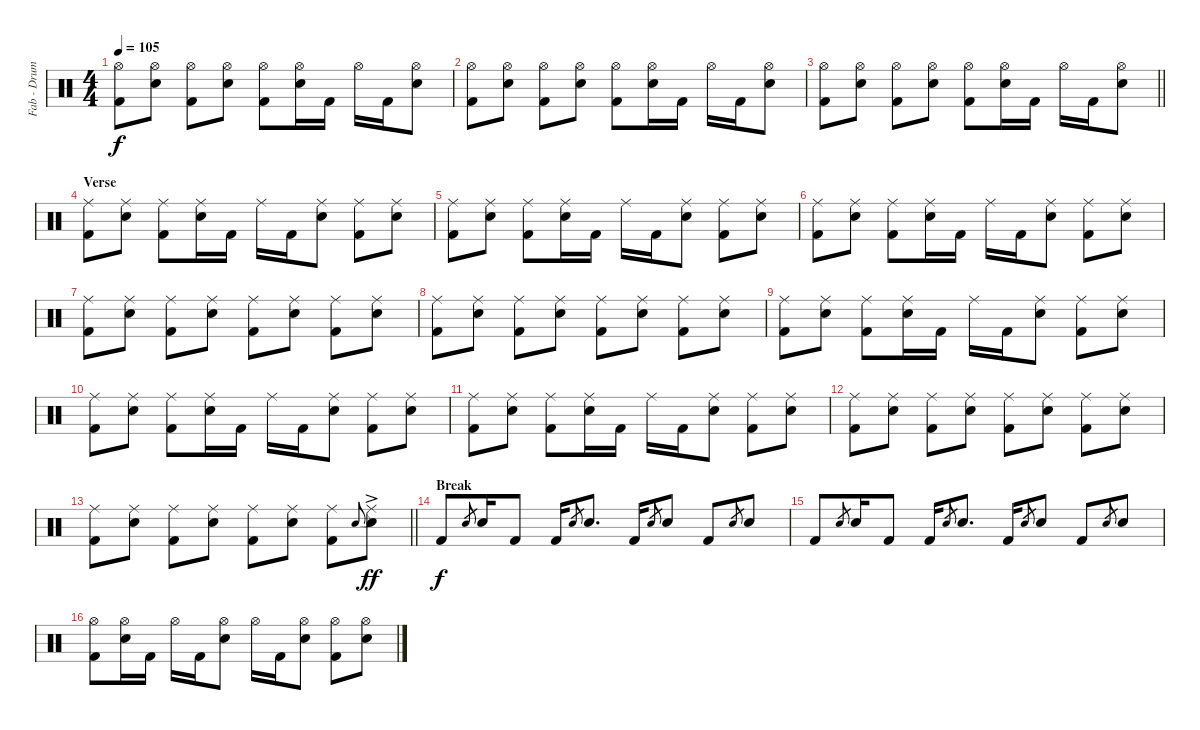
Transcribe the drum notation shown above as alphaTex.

\track ("Fab - Drums MIDI" "Fab - Drum") {instrument percussion}
\staff {score}
\articulation defaults
\ts (4 4)
\tempo 105
\clef neutral
\ks c
("Hi-Hat (open)" "Kick (hit) 2").8{dy f} ("Hi-Hat (open)" "Snare (hit) 2").8 ("Hi-Hat (open)" "Kick (hit) 2").8 ("Hi-Hat (open)" "Snare (hit) 2").8 ("Hi-Hat (open)" "Kick (hit) 2").8 ("Hi-Hat (open)" "Snare (hit) 2").16 "Kick (hit) 2".16 "Hi-Hat (open)".16 "Kick (hit) 2".16 ("Hi-Hat (open)" "Snare (hit) 2").8 |
("Hi-Hat (open)" "Kick (hit) 2").8 ("Hi-Hat (open)" "Snare (hit) 2").8 ("Hi-Hat (open)" "Kick (hit) 2").8 ("Hi-Hat (open)" "Snare (hit) 2").8 ("Hi-Hat (open)" "Kick (hit) 2").8 ("Hi-Hat (open)" "Snare (hit) 2").16 "Kick (hit) 2".16 "Hi-Hat (open)".16 "Kick (hit) 2".16 ("Hi-Hat (open)" "Snare (hit) 2").8 |
\barLineRight lightlight
("Hi-Hat (open)" "Kick (hit) 2").8 ("Hi-Hat (open)" "Snare (hit) 2").8 ("Hi-Hat (open)" "Kick (hit) 2").8 ("Hi-Hat (open)" "Snare (hit) 2").8 ("Hi-Hat (open)" "Kick (hit) 2").8 ("Hi-Hat (open)" "Snare (hit) 2").16 "Kick (hit) 2".16 "Hi-Hat (open)".16 "Kick (hit) 2".16 ("Hi-Hat (open)" "Snare (hit) 2").8 |
\section ("" "Verse")
("Ride (middle)" "Kick (hit) 2").8 ("Ride (middle)" "Snare (hit) 2").8 ("Ride (middle)" "Kick (hit) 2").8 ("Ride (middle)" "Snare (hit) 2").16 "Kick (hit) 2".16 "Ride (middle)".16 "Kick (hit) 2".16 ("Ride (middle)" "Snare (hit) 2").8 ("Ride (middle)" "Kick (hit) 2").8 ("Ride (middle)" "Snare (hit) 2").8 |
("Ride (middle)" "Kick (hit) 2").8 ("Ride (middle)" "Snare (hit) 2").8 ("Ride (middle)" "Kick (hit) 2").8 ("Ride (middle)" "Snare (hit) 2").16 "Kick (hit) 2".16 "Ride (middle)".16 "Kick (hit) 2".16 ("Ride (middle)" "Snare (hit) 2").8 ("Ride (middle)" "Kick (hit) 2").8 ("Ride (middle)" "Snare (hit) 2").8 |
("Ride (middle)" "Kick (hit) 2").8 ("Ride (middle)" "Snare (hit) 2").8 ("Ride (middle)" "Kick (hit) 2").8 ("Ride (middle)" "Snare (hit) 2").16 "Kick (hit) 2".16 "Ride (middle)".16 "Kick (hit) 2".16 ("Ride (middle)" "Snare (hit) 2").8 ("Ride (middle)" "Kick (hit) 2").8 ("Ride (middle)" "Snare (hit) 2").8 |
("Ride (middle)" "Kick (hit) 2").8 ("Ride (middle)" "Snare (hit) 2").8 ("Ride (middle)" "Kick (hit) 2").8 ("Ride (middle)" "Snare (hit) 2").8 ("Ride (middle)" "Kick (hit) 2").8 ("Ride (middle)" "Snare (hit) 2").8 ("Ride (middle)" "Kick (hit) 2").8 ("Ride (middle)" "Snare (hit) 2").8 |
("Ride (middle)" "Kick (hit) 2").8 ("Ride (middle)" "Snare (hit) 2").8 ("Ride (middle)" "Kick (hit) 2").8 ("Ride (middle)" "Snare (hit) 2").8 ("Ride (middle)" "Kick (hit) 2").8 ("Ride (middle)" "Snare (hit) 2").8 ("Ride (middle)" "Kick (hit) 2").8 ("Ride (middle)" "Snare (hit) 2").8 |
("Ride (middle)" "Kick (hit) 2").8 ("Ride (middle)" "Snare (hit) 2").8 ("Ride (middle)" "Kick (hit) 2").8 ("Ride (middle)" "Snare (hit) 2").16 "Kick (hit) 2".16 "Ride (middle)".16 "Kick (hit) 2".16 ("Ride (middle)" "Snare (hit) 2").8 ("Ride (middle)" "Kick (hit) 2").8 ("Ride (middle)" "Snare (hit) 2").8 |
("Ride (middle)" "Kick (hit) 2").8 ("Ride (middle)" "Snare (hit) 2").8 ("Ride (middle)" "Kick (hit) 2").8 ("Ride (middle)" "Snare (hit) 2").16 "Kick (hit) 2".16 "Ride (middle)".16 "Kick (hit) 2".16 ("Ride (middle)" "Snare (hit) 2").8 ("Ride (middle)" "Kick (hit) 2").8 ("Ride (middle)" "Snare (hit) 2").8 |
("Ride (middle)" "Kick (hit) 2").8 ("Ride (middle)" "Snare (hit) 2").8 ("Ride (middle)" "Kick (hit) 2").8 ("Ride (middle)" "Snare (hit) 2").16 "Kick (hit) 2".16 "Ride (middle)".16 "Kick (hit) 2".16 ("Ride (middle)" "Snare (hit) 2").8 ("Ride (middle)" "Kick (hit) 2").8 ("Ride (middle)" "Snare (hit) 2").8 |
("Ride (middle)" "Kick (hit) 2").8 ("Ride (middle)" "Snare (hit) 2").8 ("Ride (middle)" "Kick (hit) 2").8 ("Ride (middle)" "Snare (hit) 2").8 ("Ride (middle)" "Kick (hit) 2").8 ("Ride (middle)" "Snare (hit) 2").8 ("Ride (middle)" "Kick (hit) 2").8 ("Ride (middle)" "Snare (hit) 2").8 |
\barLineRight lightlight
("Ride (middle)" "Kick (hit) 2").8 ("Ride (middle)" "Snare (hit) 2").8 ("Ride (middle)" "Kick (hit) 2").8 ("Ride (middle)" "Snare (hit) 2").8 ("Ride (middle)" "Kick (hit) 2").8 ("Ride (middle)" "Snare (hit) 2").8 ("Ride (middle)" "Kick (hit) 2").8 "Snare (hit) 2".8{gr onbeat} ("Ride (middle)"{t} "Snare (hit) 2"{ac}).8{dy ff} |
\section ("" "Break")
"Kick (hit) 2".8{dy f} "Snare (hit) 2".8{gr} "Snare (hit) 2".16 "Kick (hit) 2".8 "Kick (hit) 2".16 "Snare (hit) 2".8{gr} "Snare (hit) 2".8{d} "Kick (hit) 2".16 "Snare (hit) 2".8{gr} "Snare (hit) 2".8 "Kick (hit) 2".8 "Snare (hit) 2".8{gr} "Snare (hit) 2".8 |
"Kick (hit) 2".8 "Snare (hit) 2".8{gr} "Snare (hit) 2".16 "Kick (hit) 2".8 "Kick (hit) 2".16 "Snare (hit) 2".8{gr} "Snare (hit) 2".8{d} "Kick (hit) 2".16 "Snare (hit) 2".8{gr} "Snare (hit) 2".8 "Kick (hit) 2".8 "Snare (hit) 2".8{gr} "Snare (hit) 2".8 |
("Hi-Hat (open)" "Kick (hit) 2").8 ("Hi-Hat (open)" "Snare (hit) 2").16 "Kick (hit) 2".16 "Hi-Hat (open)".16 "Kick (hit) 2".16 ("Hi-Hat (open)" "Snare (hit) 2").8 "Hi-Hat (open)".16 "Kick (hit) 2".16 ("Hi-Hat (open)" "Snare (hit) 2").8 ("Hi-Hat (open)" "Kick (hit) 2").8 ("Hi-Hat (open)" "Snare (hit) 2").8
